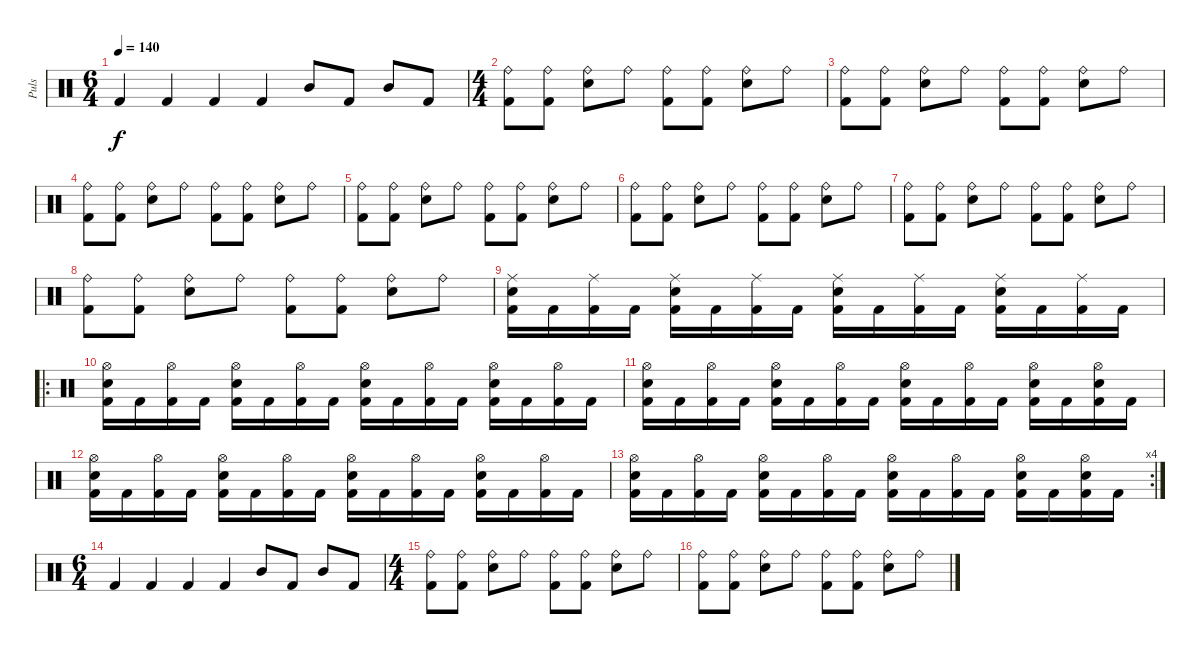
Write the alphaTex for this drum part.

\track ("Puls" "Puls") {instrument percussion}
\staff {score}
\articulation defaults
\ts (6 4)
\tempo 140
\clef neutral
\ks c "Kick (hit) 2".4{dy f} "Kick (hit) 2".4 "Kick (hit) 2".4 "Kick (hit) 2".4 "Mid Tom (hit)".8 "Kick (hit) 2".8 "Mid Tom (hit)".8 "Kick (hit) 2".8
|
\ts (4 4)
("Ride (bell)" "Kick (hit) 2").8 ("Ride (bell)" "Kick (hit) 2").8 ("Ride (bell)" "Snare (hit) 2").8 "Ride (bell)".8 ("Ride (bell)" "Kick (hit) 2").8 ("Ride (bell)" "Kick (hit) 2").8 ("Ride (bell)" "Snare (hit) 2").8 "Ride (bell)".8 |
("Ride (bell)" "Kick (hit) 2").8 ("Ride (bell)" "Kick (hit) 2").8 ("Ride (bell)" "Snare (hit) 2").8 "Ride (bell)".8 ("Ride (bell)" "Kick (hit) 2").8 ("Ride (bell)" "Kick (hit) 2").8 ("Ride (bell)" "Snare (hit) 2").8 "Ride (bell)".8 |
("Ride (bell)" "Kick (hit) 2").8 ("Ride (bell)" "Kick (hit) 2").8 ("Ride (bell)" "Snare (hit) 2").8 "Ride (bell)".8 ("Ride (bell)" "Kick (hit) 2").8 ("Ride (bell)" "Kick (hit) 2").8 ("Ride (bell)" "Snare (hit) 2").8 "Ride (bell)".8 |
("Ride (bell)" "Kick (hit) 2").8 ("Ride (bell)" "Kick (hit) 2").8 ("Ride (bell)" "Snare (hit) 2").8 "Ride (bell)".8 ("Ride (bell)" "Kick (hit) 2").8 ("Ride (bell)" "Kick (hit) 2").8 ("Ride (bell)" "Snare (hit) 2").8 "Ride (bell)".8 |
("Ride (bell)" "Kick (hit) 2").8 ("Ride (bell)" "Kick (hit) 2").8 ("Ride (bell)" "Snare (hit) 2").8 "Ride (bell)".8 ("Ride (bell)" "Kick (hit) 2").8 ("Ride (bell)" "Kick (hit) 2").8 ("Ride (bell)" "Snare (hit) 2").8 "Ride (bell)".8 |
("Ride (bell)" "Kick (hit) 2").8 ("Ride (bell)" "Kick (hit) 2").8 ("Ride (bell)" "Snare (hit) 2").8 "Ride (bell)".8 ("Ride (bell)" "Kick (hit) 2").8 ("Ride (bell)" "Kick (hit) 2").8 ("Ride (bell)" "Snare (hit) 2").8 "Ride (bell)".8 |
("Ride (bell)" "Kick (hit) 2").8 ("Ride (bell)" "Kick (hit) 2").8 ("Ride (bell)" "Snare (hit) 2").8 "Ride (bell)".8 ("Ride (bell)" "Kick (hit) 2").8 ("Ride (bell)" "Kick (hit) 2").8 ("Ride (bell)" "Snare (hit) 2").8 "Ride (bell)".8 |
("Ride (middle)" "Snare (hit) 2" "Kick (hit) 2").16 "Kick (hit) 2".16 ("Ride (middle)" "Kick (hit) 2").16 "Kick (hit) 2".16 ("Ride (middle)" "Snare (hit) 2" "Kick (hit) 2").16 "Kick (hit) 2".16 ("Ride (middle)" "Kick (hit) 2").16 "Kick (hit) 2".16 ("Ride (middle)" "Snare (hit) 2" "Kick (hit) 2").16 "Kick (hit) 2".16 ("Ride (middle)" "Kick (hit) 2").16 "Kick (hit) 2".16 ("Ride (middle)" "Snare (hit) 2" "Kick (hit) 2").16 "Kick (hit) 2".16 ("Ride (middle)" "Kick (hit) 2").16 "Kick (hit) 2".16 |
\ro
("Hi-Hat (open)" "Snare (hit) 2" "Kick (hit) 2").16 "Kick (hit) 2".16 ("Hi-Hat (open)" "Kick (hit) 2").16 "Kick (hit) 2".16 ("Hi-Hat (open)" "Snare (hit) 2" "Kick (hit) 2").16 "Kick (hit) 2".16 ("Hi-Hat (open)" "Kick (hit) 2").16 "Kick (hit) 2".16 ("Hi-Hat (open)" "Snare (hit) 2" "Kick (hit) 2").16 "Kick (hit) 2".16 ("Hi-Hat (open)" "Kick (hit) 2").16 "Kick (hit) 2".16 ("Hi-Hat (open)" "Snare (hit) 2" "Kick (hit) 2").16 "Kick (hit) 2".16 ("Hi-Hat (open)" "Kick (hit) 2").16 "Kick (hit) 2".16 |
("Hi-Hat (open)" "Snare (hit) 2" "Kick (hit) 2").16 "Kick (hit) 2".16 ("Hi-Hat (open)" "Kick (hit) 2").16 "Kick (hit) 2".16 ("Hi-Hat (open)" "Snare (hit) 2" "Kick (hit) 2").16 "Kick (hit) 2".16 ("Hi-Hat (open)" "Kick (hit) 2").16 "Kick (hit) 2".16 ("Hi-Hat (open)" "Snare (hit) 2" "Kick (hit) 2").16 "Kick (hit) 2".16 ("Hi-Hat (open)" "Kick (hit) 2").16 "Kick (hit) 2".16 ("Hi-Hat (open)" "Snare (hit) 2" "Kick (hit) 2").16 "Kick (hit) 2".16 ("Hi-Hat (open)" "Snare (hit) 2" "Kick (hit) 2").16 "Kick (hit) 2".16 |
("Hi-Hat (open)" "Snare (hit) 2" "Kick (hit) 2").16 "Kick (hit) 2".16 ("Hi-Hat (open)" "Kick (hit) 2").16 "Kick (hit) 2".16 ("Hi-Hat (open)" "Snare (hit) 2" "Kick (hit) 2").16 "Kick (hit) 2".16 ("Hi-Hat (open)" "Kick (hit) 2").16 "Kick (hit) 2".16 ("Hi-Hat (open)" "Snare (hit) 2" "Kick (hit) 2").16 "Kick (hit) 2".16 ("Hi-Hat (open)" "Kick (hit) 2").16 "Kick (hit) 2".16 ("Hi-Hat (open)" "Snare (hit) 2" "Kick (hit) 2").16 "Kick (hit) 2".16 ("Hi-Hat (open)" "Kick (hit) 2").16 "Kick (hit) 2".16 |
\rc 4
("Hi-Hat (open)" "Snare (hit) 2" "Kick (hit) 2").16 "Kick (hit) 2".16 ("Hi-Hat (open)" "Kick (hit) 2").16 "Kick (hit) 2".16 ("Hi-Hat (open)" "Snare (hit) 2" "Kick (hit) 2").16 "Kick (hit) 2".16 ("Hi-Hat (open)" "Kick (hit) 2").16 "Kick (hit) 2".16 ("Hi-Hat (open)" "Snare (hit) 2" "Kick (hit) 2").16 "Kick (hit) 2".16 ("Hi-Hat (open)" "Kick (hit) 2").16 "Kick (hit) 2".16 ("Hi-Hat (open)" "Snare (hit) 2" "Kick (hit) 2").16 "Kick (hit) 2".16 ("Hi-Hat (open)" "Snare (hit) 2" "Kick (hit) 2").16 "Kick (hit) 2".16 |
\ts (6 4)
"Kick (hit) 2".4 "Kick (hit) 2".4 "Kick (hit) 2".4 "Kick (hit) 2".4 "Mid Tom (hit)".8 "Kick (hit) 2".8 "Mid Tom (hit)".8 "Kick (hit) 2".8 |
\ts (4 4)
("Ride (bell)" "Kick (hit) 2").8 ("Ride (bell)" "Kick (hit) 2").8 ("Ride (bell)" "Snare (hit) 2").8 "Ride (bell)".8 ("Ride (bell)" "Kick (hit) 2").8 ("Ride (bell)" "Kick (hit) 2").8 ("Ride (bell)" "Snare (hit) 2").8 "Ride (bell)".8 |
("Ride (bell)" "Kick (hit) 2").8 ("Ride (bell)" "Kick (hit) 2").8 ("Ride (bell)" "Snare (hit) 2").8 "Ride (bell)".8 ("Ride (bell)" "Kick (hit) 2").8 ("Ride (bell)" "Kick (hit) 2").8 ("Ride (bell)" "Snare (hit) 2").8 "Ride (bell)".8
